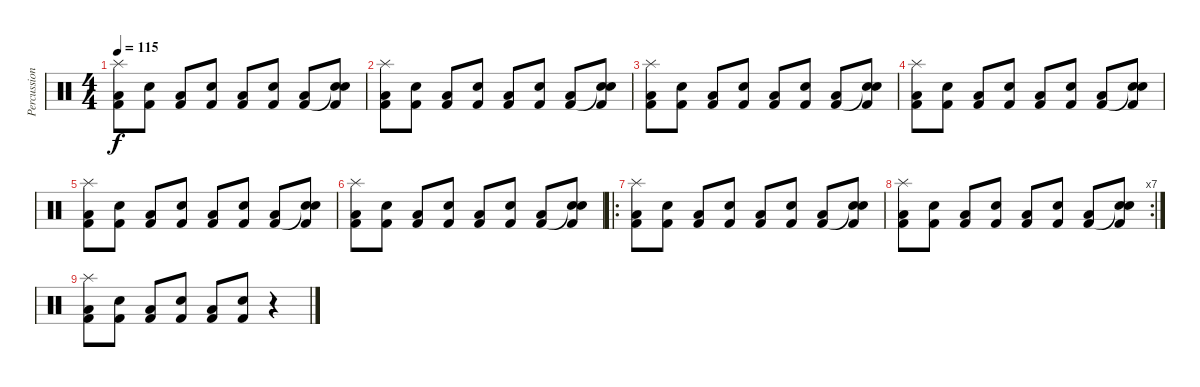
\track ("Percussions" "Percussion") {instrument percussion}
\staff {score}
\articulation defaults
\ts (4 4)
\tempo 115
\clef neutral
\ks c
("Splash (hit)" "Kick (hit) 2" "Low Floor Tom (hit)").8{dy f} ("Kick (hit) 2" "Electric Snare (hit)").8 ("Kick (hit) 2" "Low Floor Tom (hit)").8 ("Kick (hit) 2" "Electric Snare (hit)").8 ("Kick (hit) 2" "Low Floor Tom (hit)").8 ("Kick (hit) 2" "Electric Snare (hit)").8 ("Kick (hit) 2" "Low Floor Tom (hit)").8 ("Snare (hit)"{t} "Kick (hit) 2" "Electric Snare (hit)").8 |
("Splash (hit)" "Kick (hit) 2" "Low Floor Tom (hit)").8 ("Kick (hit) 2" "Electric Snare (hit)").8 ("Kick (hit) 2" "Low Floor Tom (hit)").8 ("Kick (hit) 2" "Electric Snare (hit)").8 ("Kick (hit) 2" "Low Floor Tom (hit)").8 ("Kick (hit) 2" "Electric Snare (hit)").8 ("Kick (hit) 2" "Low Floor Tom (hit)").8 ("Snare (hit)"{t} "Kick (hit) 2" "Electric Snare (hit)").8 |
("Splash (hit)" "Kick (hit) 2" "Low Floor Tom (hit)").8 ("Kick (hit) 2" "Electric Snare (hit)").8 ("Kick (hit) 2" "Low Floor Tom (hit)").8 ("Kick (hit) 2" "Electric Snare (hit)").8 ("Kick (hit) 2" "Low Floor Tom (hit)").8 ("Kick (hit) 2" "Electric Snare (hit)").8 ("Kick (hit) 2" "Low Floor Tom (hit)").8 ("Snare (hit)"{t} "Kick (hit) 2" "Electric Snare (hit)").8 |
("Splash (hit)" "Kick (hit) 2" "Low Floor Tom (hit)").8 ("Kick (hit) 2" "Electric Snare (hit)").8 ("Kick (hit) 2" "Low Floor Tom (hit)").8 ("Kick (hit) 2" "Electric Snare (hit)").8 ("Kick (hit) 2" "Low Floor Tom (hit)").8 ("Kick (hit) 2" "Electric Snare (hit)").8 ("Kick (hit) 2" "Low Floor Tom (hit)").8 ("Snare (hit)"{t} "Kick (hit) 2" "Electric Snare (hit)").8 |
("Splash (hit)" "Kick (hit) 2" "Low Floor Tom (hit)").8 ("Kick (hit) 2" "Electric Snare (hit)").8 ("Kick (hit) 2" "Low Floor Tom (hit)").8 ("Kick (hit) 2" "Electric Snare (hit)").8 ("Kick (hit) 2" "Low Floor Tom (hit)").8 ("Kick (hit) 2" "Electric Snare (hit)").8 ("Kick (hit) 2" "Low Floor Tom (hit)").8 ("Snare (hit)"{t} "Kick (hit) 2" "Electric Snare (hit)").8 |
("Splash (hit)" "Kick (hit) 2" "Low Floor Tom (hit)").8 ("Kick (hit) 2" "Electric Snare (hit)").8 ("Kick (hit) 2" "Low Floor Tom (hit)").8 ("Kick (hit) 2" "Electric Snare (hit)").8 ("Kick (hit) 2" "Low Floor Tom (hit)").8 ("Kick (hit) 2" "Electric Snare (hit)").8 ("Kick (hit) 2" "Low Floor Tom (hit)").8 ("Snare (hit)"{t} "Kick (hit) 2" "Electric Snare (hit)").8 |
\ro
("Splash (hit)" "Kick (hit) 2" "Low Floor Tom (hit)").8 ("Kick (hit) 2" "Electric Snare (hit)").8 ("Kick (hit) 2" "Low Floor Tom (hit)").8 ("Kick (hit) 2" "Electric Snare (hit)").8 ("Kick (hit) 2" "Low Floor Tom (hit)").8 ("Kick (hit) 2" "Electric Snare (hit)").8 ("Kick (hit) 2" "Low Floor Tom (hit)").8 ("Snare (hit)"{t} "Kick (hit) 2" "Electric Snare (hit)").8 |
\rc 7
("Splash (hit)" "Kick (hit) 2" "Low Floor Tom (hit)").8 ("Kick (hit) 2" "Electric Snare (hit)").8 ("Kick (hit) 2" "Low Floor Tom (hit)").8 ("Kick (hit) 2" "Electric Snare (hit)").8 ("Kick (hit) 2" "Low Floor Tom (hit)").8 ("Kick (hit) 2" "Electric Snare (hit)").8 ("Kick (hit) 2" "Low Floor Tom (hit)").8 ("Snare (hit)"{t} "Kick (hit) 2" "Electric Snare (hit)").8 |
("Splash (hit)" "Kick (hit) 2" "Low Floor Tom (hit)").8 ("Kick (hit) 2" "Electric Snare (hit)").8 ("Kick (hit) 2" "Low Floor Tom (hit)").8 ("Kick (hit) 2" "Electric Snare (hit)").8 ("Kick (hit) 2" "Low Floor Tom (hit)").8 ("Kick (hit) 2" "Electric Snare (hit)").8 r.4
